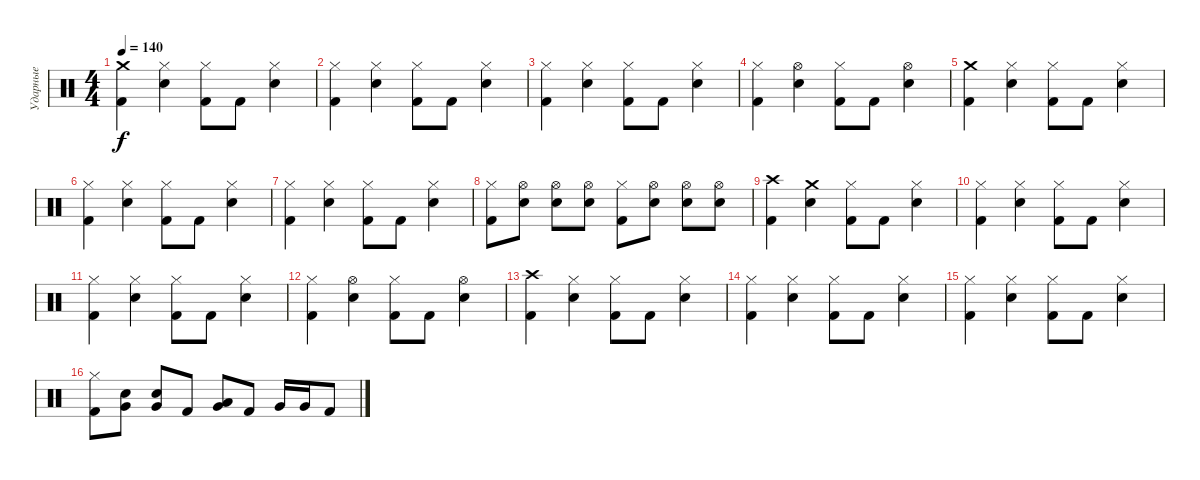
\track ("Ударные" "Ударные") {instrument percussion}
\staff {score}
\articulation defaults
\ts (4 4)
\tempo 140
\clef neutral
\ks c
("Crash medium (hit)" "Kick (hit) 2").4{dy f} ("Hi-Hat (closed)" "Electric Snare (hit)").4 ("Hi-Hat (closed)" "Kick (hit) 2").8 "Kick (hit) 2".8 ("Hi-Hat (closed)" "Electric Snare (hit)").4 |
("Hi-Hat (closed)" "Kick (hit) 2").4 ("Hi-Hat (closed)" "Electric Snare (hit)").4 ("Hi-Hat (closed)" "Kick (hit) 2").8 "Kick (hit) 2".8 ("Hi-Hat (closed)" "Electric Snare (hit)").4 |
("Hi-Hat (closed)" "Kick (hit) 2").4 ("Hi-Hat (closed)" "Electric Snare (hit)").4 ("Hi-Hat (closed)" "Kick (hit) 2").8 "Kick (hit) 2".8 ("Hi-Hat (closed)" "Electric Snare (hit)").4 |
("Hi-Hat (closed)" "Kick (hit) 2").4 ("Hi-Hat (open)" "Electric Snare (hit)").4 ("Hi-Hat (closed)" "Kick (hit) 2").8 "Kick (hit) 2".8 ("Hi-Hat (open)" "Electric Snare (hit)").4 |
("Crash medium (hit)" "Kick (hit) 2").4 ("Hi-Hat (closed)" "Electric Snare (hit)").4 ("Hi-Hat (closed)" "Kick (hit) 2").8 "Kick (hit) 2".8 ("Hi-Hat (closed)" "Electric Snare (hit)").4 |
("Hi-Hat (closed)" "Kick (hit) 2").4 ("Hi-Hat (closed)" "Electric Snare (hit)").4 ("Hi-Hat (closed)" "Kick (hit) 2").8 "Kick (hit) 2".8 ("Hi-Hat (closed)" "Electric Snare (hit)").4 |
("Hi-Hat (closed)" "Kick (hit) 2").4 ("Hi-Hat (closed)" "Electric Snare (hit)").4 ("Hi-Hat (closed)" "Kick (hit) 2").8 "Kick (hit) 2".8 ("Hi-Hat (closed)" "Electric Snare (hit)").4 |
("Hi-Hat (closed)" "Kick (hit) 2").8 ("Electric Snare (hit)" "Hi-Hat (open)").8 ("Electric Snare (hit)" "Hi-Hat (open)").8 ("Hi-Hat (open)" "Electric Snare (hit)").8 ("Hi-Hat (closed)" "Kick (hit) 2").8 ("Hi-Hat (open)" "Electric Snare (hit)").8 ("Hi-Hat (open)" "Electric Snare (hit)").8 ("Hi-Hat (open)" "Electric Snare (hit)").8 |
("Crash high (hit)" "Kick (hit) 2").4 ("Crash medium (hit)" "Electric Snare (hit)").4 ("Hi-Hat (closed)" "Kick (hit) 2").8 "Kick (hit) 2".8 ("Hi-Hat (closed)" "Electric Snare (hit)").4 |
("Hi-Hat (closed)" "Kick (hit) 2").4 ("Hi-Hat (closed)" "Electric Snare (hit)").4 ("Hi-Hat (closed)" "Kick (hit) 2").8 "Kick (hit) 2".8 ("Hi-Hat (closed)" "Electric Snare (hit)").4 |
("Hi-Hat (closed)" "Kick (hit) 2").4 ("Hi-Hat (closed)" "Electric Snare (hit)").4 ("Hi-Hat (closed)" "Kick (hit) 2").8 "Kick (hit) 2".8 ("Hi-Hat (closed)" "Electric Snare (hit)").4 |
("Hi-Hat (closed)" "Kick (hit) 2").4 ("Hi-Hat (open)" "Electric Snare (hit)").4 ("Hi-Hat (closed)" "Kick (hit) 2").8 "Kick (hit) 2".8 ("Hi-Hat (open)" "Electric Snare (hit)").4 |
("Crash high (hit)" "Kick (hit) 2").4 ("Hi-Hat (closed)" "Electric Snare (hit)").4 ("Hi-Hat (closed)" "Kick (hit) 2").8 "Kick (hit) 2".8 ("Hi-Hat (closed)" "Electric Snare (hit)").4 |
("Hi-Hat (closed)" "Kick (hit) 2").4 ("Hi-Hat (closed)" "Electric Snare (hit)").4 ("Hi-Hat (closed)" "Kick (hit) 2").8 "Kick (hit) 2".8 ("Hi-Hat (closed)" "Electric Snare (hit)").4 |
("Hi-Hat (closed)" "Kick (hit) 2").4 ("Hi-Hat (closed)" "Electric Snare (hit)").4 ("Hi-Hat (closed)" "Kick (hit) 2").8 "Kick (hit) 2".8 ("Hi-Hat (closed)" "Electric Snare (hit)").4 |
("Hi-Hat (closed)" "Kick (hit) 2").8 ("Electric Snare (hit)" "Very Low Tom (hit)").8 ("Electric Snare (hit)" "Very Low Tom (hit)").8 "Kick (hit) 2".8 ("Low Tom (hit)" "Very Low Tom (hit)").8 "Kick (hit) 2".8 "Very Low Tom (hit)".16 "Very Low Tom (hit)".16 "Kick (hit) 2".8
